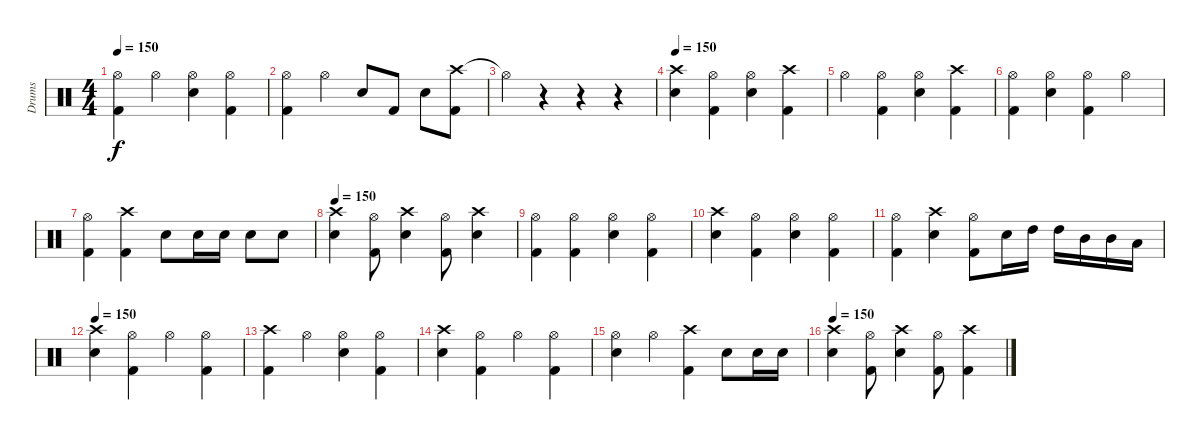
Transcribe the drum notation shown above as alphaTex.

\track ("Drums" "Drums") {instrument percussion}
\staff {score}
\articulation defaults
\ts (4 4)
\tempo 150
\clef neutral
\ks c
("Hi-Hat (open)" "Kick (hit) 2").4{dy f} "Hi-Hat (open)".4 ("Hi-Hat (open)" "Electric Snare (hit)").4 ("Hi-Hat (open)" "Kick (hit) 2").4 |
("Hi-Hat (open)" "Kick (hit) 2").4 "Hi-Hat (open)".4 "Electric Snare (hit)".8 "Kick (hit) 2".8 "Electric Snare (hit)".8 ("Crash high (hit)" "Kick (hit) 2").8 |
"Hi-Hat (open)"{t}.4 r.4 r.4 r.4 |
\tempo 150
("Crash high (hit)" "Electric Snare (hit)").4 ("Hi-Hat (open)" "Kick (hit) 2").4 ("Hi-Hat (open)" "Electric Snare (hit)").4 ("Crash high (hit)" "Kick (hit) 2").4 |
"Hi-Hat (open)".4 ("Hi-Hat (open)" "Kick (hit) 2").4 ("Hi-Hat (open)" "Electric Snare (hit)").4 ("Crash high (hit)" "Kick (hit) 2").4 |
("Hi-Hat (open)" "Kick (hit) 2").4 ("Hi-Hat (open)" "Electric Snare (hit)").4 ("Hi-Hat (open)" "Kick (hit) 2").4 "Hi-Hat (open)".4 |
("Hi-Hat (open)" "Kick (hit) 2").4 ("Crash high (hit)" "Kick (hit) 2").4 "Electric Snare (hit)".8 "Electric Snare (hit)".16 "Electric Snare (hit)".16 "Electric Snare (hit)".8 "Electric Snare (hit)".8 |
\tempo 150
("Crash high (hit)" "Electric Snare (hit)").4 ("Hi-Hat (open)" "Kick (hit) 2").8 ("Crash high (hit)" "Electric Snare (hit)").4 ("Hi-Hat (open)" "Kick (hit) 2").8 ("Crash high (hit)" "Electric Snare (hit)").4 |
("Hi-Hat (open)" "Kick (hit) 2").4 ("Hi-Hat (open)" "Kick (hit) 2").4 ("Hi-Hat (open)" "Electric Snare (hit)").4 ("Hi-Hat (open)" "Kick (hit) 2").4 |
("Crash high (hit)" "Electric Snare (hit)").4 ("Hi-Hat (open)" "Kick (hit) 2").4 ("Hi-Hat (open)" "Electric Snare (hit)").4 ("Hi-Hat (open)" "Kick (hit) 2").4 |
("Hi-Hat (open)" "Kick (hit) 2").4 ("Crash high (hit)" "Electric Snare (hit)").4 ("Hi-Hat (open)" "Kick (hit) 2").8 "Electric Snare (hit)".16 "High Tom (hit)".16 "High Tom (hit)".16 "Mid Tom (hit)".16 "Mid Tom (hit)".16 "Low Tom (hit)".16 |
\tempo 150
("Crash high (hit)" "Electric Snare (hit)").4 ("Hi-Hat (open)" "Kick (hit) 2").4 "Hi-Hat (open)".4 ("Hi-Hat (open)" "Kick (hit) 2").4 |
("Crash high (hit)" "Kick (hit) 2").4 "Hi-Hat (open)".4 ("Hi-Hat (open)" "Electric Snare (hit)").4 ("Hi-Hat (open)" "Kick (hit) 2").4 |
("Crash high (hit)" "Electric Snare (hit)").4 ("Hi-Hat (open)" "Kick (hit) 2").4 "Hi-Hat (open)".4 ("Hi-Hat (open)" "Kick (hit) 2").4 |
("Hi-Hat (open)" "Electric Snare (hit)").4 "Hi-Hat (open)".4 ("Crash high (hit)" "Kick (hit) 2").4 "Electric Snare (hit)".8 "Electric Snare (hit)".16 "Electric Snare (hit)".16 |
\tempo 150
("Crash high (hit)" "Electric Snare (hit)").4 ("Kick (hit) 2" "Hi-Hat (open)").8 ("Crash high (hit)" "Electric Snare (hit)").4 ("Hi-Hat (open)" "Kick (hit) 2").8 ("Crash high (hit)" "Kick (hit) 2").4
